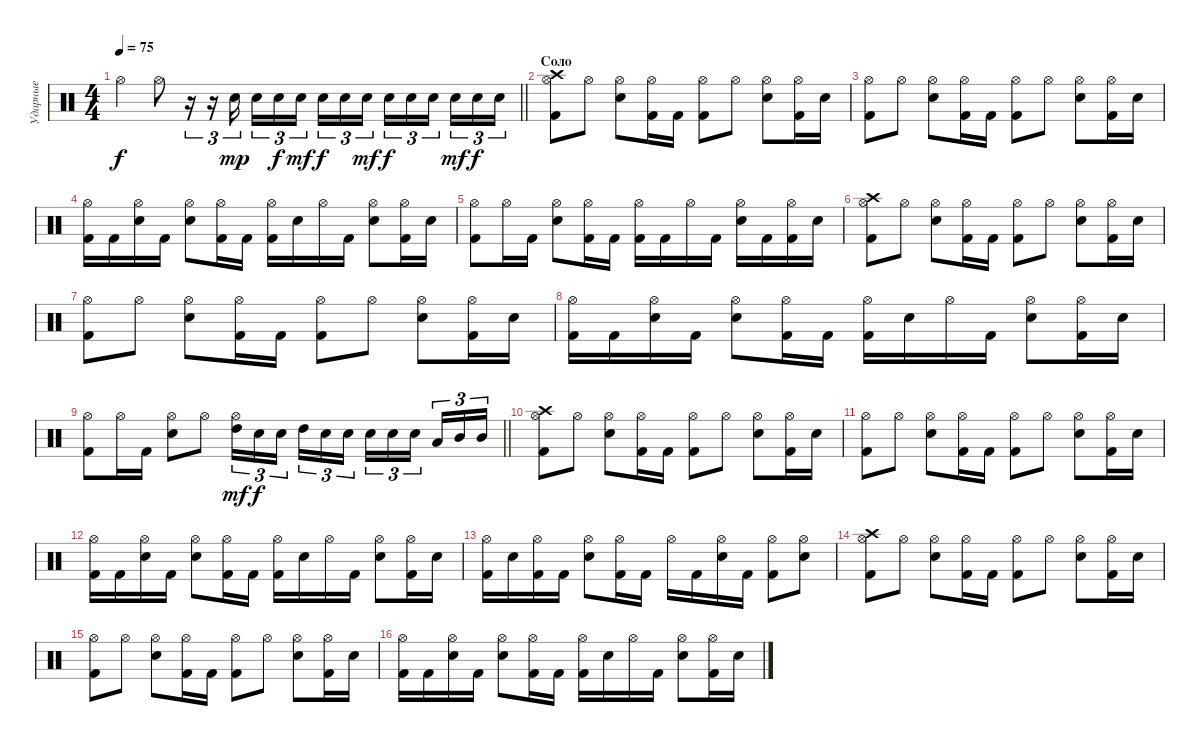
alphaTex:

\track ("Ударные" "Ударные") {instrument percussion}
\staff {score}
\articulation defaults
\ts (4 4)
\tempo 75
\clef neutral
\barLineRight lightlight
\ks c "Hi-Hat (open)".4{dy f} "Hi-Hat (open)".8
r.16{tu (3 2)} r.16{tu (3 2)} "Electric Snare (hit)".16{tu (3 2) dy mp} "Electric Snare (hit)".16{tu (3 2)} "Electric Snare (hit)".16{tu (3 2) dy f} "Electric Snare (hit)".16{tu (3 2) dy mf beam splitsecondary} "Electric Snare (hit)".16{tu (3 2) dy f} "Electric Snare (hit)".16{tu (3 2)} "Electric Snare (hit)".16{tu (3 2) dy mf} "Electric Snare (hit)".16{tu (3 2) dy f} "Electric Snare (hit)".16{tu (3 2)} "Electric Snare (hit)".16{tu (3 2) beam splitsecondary} "Electric Snare (hit)".16{tu (3 2) dy mf} "Electric Snare (hit)".16{tu (3 2) dy f} "Electric Snare (hit)".16{tu (3 2)} |
\section ("" "Соло")
("Crash high (hit)" "Hi-Hat (open)" "Kick (hit) 2").8 "Hi-Hat (open)".8 ("Hi-Hat (open)" "Electric Snare (hit)").8 ("Hi-Hat (open)" "Kick (hit) 2").16 "Kick (hit) 2".16 ("Hi-Hat (open)" "Kick (hit) 2").8 "Hi-Hat (open)".8 ("Hi-Hat (open)" "Electric Snare (hit)").8 ("Hi-Hat (open)" "Kick (hit) 2").16 "Electric Snare (hit)".16 |
("Hi-Hat (open)" "Kick (hit) 2").8 "Hi-Hat (open)".8 ("Hi-Hat (open)" "Electric Snare (hit)").8 ("Hi-Hat (open)" "Kick (hit) 2").16 "Kick (hit) 2".16 ("Hi-Hat (open)" "Kick (hit) 2").8 "Hi-Hat (open)".8 ("Hi-Hat (open)" "Electric Snare (hit)").8 ("Hi-Hat (open)" "Kick (hit) 2").16 "Electric Snare (hit)".16 |
("Hi-Hat (open)" "Kick (hit) 2").16 "Kick (hit) 2".16 ("Hi-Hat (open)" "Electric Snare (hit)").16 "Kick (hit) 2".16 ("Hi-Hat (open)" "Electric Snare (hit)").8 ("Hi-Hat (open)" "Kick (hit) 2").16 "Kick (hit) 2".16 ("Hi-Hat (open)" "Kick (hit) 2").16 "Electric Snare (hit)".16 "Hi-Hat (open)".16 "Kick (hit) 2".16 ("Hi-Hat (open)" "Electric Snare (hit)").8 ("Hi-Hat (open)" "Kick (hit) 2").16 "Electric Snare (hit)".16 |
("Hi-Hat (open)" "Kick (hit) 2").8 "Hi-Hat (open)".16 "Kick (hit) 2".16 ("Hi-Hat (open)" "Electric Snare (hit)").8 ("Hi-Hat (open)" "Kick (hit) 2").16 "Kick (hit) 2".16 ("Hi-Hat (open)" "Kick (hit) 2").16 "Kick (hit) 2".16 "Hi-Hat (open)".16 "Kick (hit) 2".16 ("Hi-Hat (open)" "Electric Snare (hit)").16 "Kick (hit) 2".16 ("Hi-Hat (open)" "Kick (hit) 2").16 "Electric Snare (hit)".16 |
("Crash high (hit)" "Hi-Hat (open)" "Kick (hit) 2").8 "Hi-Hat (open)".8 ("Hi-Hat (open)" "Electric Snare (hit)").8 ("Hi-Hat (open)" "Kick (hit) 2").16 "Kick (hit) 2".16 ("Hi-Hat (open)" "Kick (hit) 2").8 "Hi-Hat (open)".8 ("Hi-Hat (open)" "Electric Snare (hit)").8 ("Hi-Hat (open)" "Kick (hit) 2").16 "Electric Snare (hit)".16 |
("Hi-Hat (open)" "Kick (hit) 2").8 "Hi-Hat (open)".8 ("Hi-Hat (open)" "Electric Snare (hit)").8 ("Hi-Hat (open)" "Kick (hit) 2").16 "Kick (hit) 2".16 ("Hi-Hat (open)" "Kick (hit) 2").8 "Hi-Hat (open)".8 ("Hi-Hat (open)" "Electric Snare (hit)").8 ("Hi-Hat (open)" "Kick (hit) 2").16 "Electric Snare (hit)".16 |
("Hi-Hat (open)" "Kick (hit) 2").16 "Kick (hit) 2".16 ("Hi-Hat (open)" "Electric Snare (hit)").16 "Kick (hit) 2".16 ("Hi-Hat (open)" "Electric Snare (hit)").8 ("Hi-Hat (open)" "Kick (hit) 2").16 "Kick (hit) 2".16 ("Hi-Hat (open)" "Kick (hit) 2").16 "Electric Snare (hit)".16 "Hi-Hat (open)".16 "Kick (hit) 2".16 ("Hi-Hat (open)" "Electric Snare (hit)").8 ("Hi-Hat (open)" "Kick (hit) 2").16 "Electric Snare (hit)".16 |
\barLineRight lightlight
("Hi-Hat (open)" "Kick (hit) 2").8 "Hi-Hat (open)".16 "Kick (hit) 2".16 ("Hi-Hat (open)" "Electric Snare (hit)").8 "Hi-Hat (open)".8 ("Hi-Hat (open)" "High Tom (hit)").16{tu (3 2) dy mf} "Electric Snare (hit)".16{tu (3 2) dy f} "Electric Snare (hit)".16{tu (3 2) beam splitsecondary} "High Tom (hit)".16{tu (3 2)} "Electric Snare (hit)".16{tu (3 2)} "Electric Snare (hit)".16{tu (3 2)} "Electric Snare (hit)".16{tu (3 2)} "Electric Snare (hit)".16{tu (3 2)} "Electric Snare (hit)".16{tu (3 2) beam splitsecondary} "Low Floor Tom (hit)".16{tu (3 2)} "Mid Tom (hit)".16{tu (3 2)} "Mid Tom (hit)".16{tu (3 2)} |
("Crash high (hit)" "Hi-Hat (open)" "Kick (hit) 2").8 "Hi-Hat (open)".8 ("Hi-Hat (open)" "Electric Snare (hit)").8 ("Hi-Hat (open)" "Kick (hit) 2").16 "Kick (hit) 2".16 ("Hi-Hat (open)" "Kick (hit) 2").8 "Hi-Hat (open)".8 ("Hi-Hat (open)" "Electric Snare (hit)").8 ("Hi-Hat (open)" "Kick (hit) 2").16 "Electric Snare (hit)".16 |
("Hi-Hat (open)" "Kick (hit) 2").8 "Hi-Hat (open)".8 ("Hi-Hat (open)" "Electric Snare (hit)").8 ("Hi-Hat (open)" "Kick (hit) 2").16 "Kick (hit) 2".16 ("Hi-Hat (open)" "Kick (hit) 2").8 "Hi-Hat (open)".8 ("Hi-Hat (open)" "Electric Snare (hit)").8 ("Hi-Hat (open)" "Kick (hit) 2").16 "Electric Snare (hit)".16 |
("Hi-Hat (open)" "Kick (hit) 2").16 "Kick (hit) 2".16 ("Hi-Hat (open)" "Electric Snare (hit)").16 "Kick (hit) 2".16 ("Hi-Hat (open)" "Electric Snare (hit)").8 ("Hi-Hat (open)" "Kick (hit) 2").16 "Kick (hit) 2".16 ("Hi-Hat (open)" "Kick (hit) 2").16 "Electric Snare (hit)".16 "Hi-Hat (open)".16 "Kick (hit) 2".16 ("Hi-Hat (open)" "Electric Snare (hit)").8 ("Hi-Hat (open)" "Kick (hit) 2").16 "Electric Snare (hit)".16 |
("Hi-Hat (open)" "Kick (hit) 2").16 "Electric Snare (hit)".16 ("Hi-Hat (open)" "Kick (hit) 2").16 "Kick (hit) 2".16 ("Hi-Hat (open)" "Electric Snare (hit)").8 ("Hi-Hat (open)" "Kick (hit) 2").16 "Kick (hit) 2".16 "Hi-Hat (open)".16 "Kick (hit) 2".16 ("Hi-Hat (open)" "Electric Snare (hit)").16 "Kick (hit) 2".16 ("Hi-Hat (open)" "Kick (hit) 2").8 ("Hi-Hat (open)" "Electric Snare (hit)").8 |
("Crash high (hit)" "Hi-Hat (open)" "Kick (hit) 2").8 "Hi-Hat (open)".8 ("Hi-Hat (open)" "Electric Snare (hit)").8 ("Hi-Hat (open)" "Kick (hit) 2").16 "Kick (hit) 2".16 ("Hi-Hat (open)" "Kick (hit) 2").8 "Hi-Hat (open)".8 ("Hi-Hat (open)" "Electric Snare (hit)").8 ("Hi-Hat (open)" "Kick (hit) 2").16 "Electric Snare (hit)".16 |
("Hi-Hat (open)" "Kick (hit) 2").8 "Hi-Hat (open)".8 ("Hi-Hat (open)" "Electric Snare (hit)").8 ("Hi-Hat (open)" "Kick (hit) 2").16 "Kick (hit) 2".16 ("Hi-Hat (open)" "Kick (hit) 2").8 "Hi-Hat (open)".8 ("Hi-Hat (open)" "Electric Snare (hit)").8 ("Hi-Hat (open)" "Kick (hit) 2").16 "Electric Snare (hit)".16 |
("Hi-Hat (open)" "Kick (hit) 2").16 "Kick (hit) 2".16 ("Hi-Hat (open)" "Electric Snare (hit)").16 "Kick (hit) 2".16 ("Hi-Hat (open)" "Electric Snare (hit)").8 ("Hi-Hat (open)" "Kick (hit) 2").16 "Kick (hit) 2".16 ("Hi-Hat (open)" "Kick (hit) 2").16 "Electric Snare (hit)".16 "Hi-Hat (open)".16 "Kick (hit) 2".16 ("Hi-Hat (open)" "Electric Snare (hit)").8 ("Hi-Hat (open)" "Kick (hit) 2").16 "Electric Snare (hit)".16
